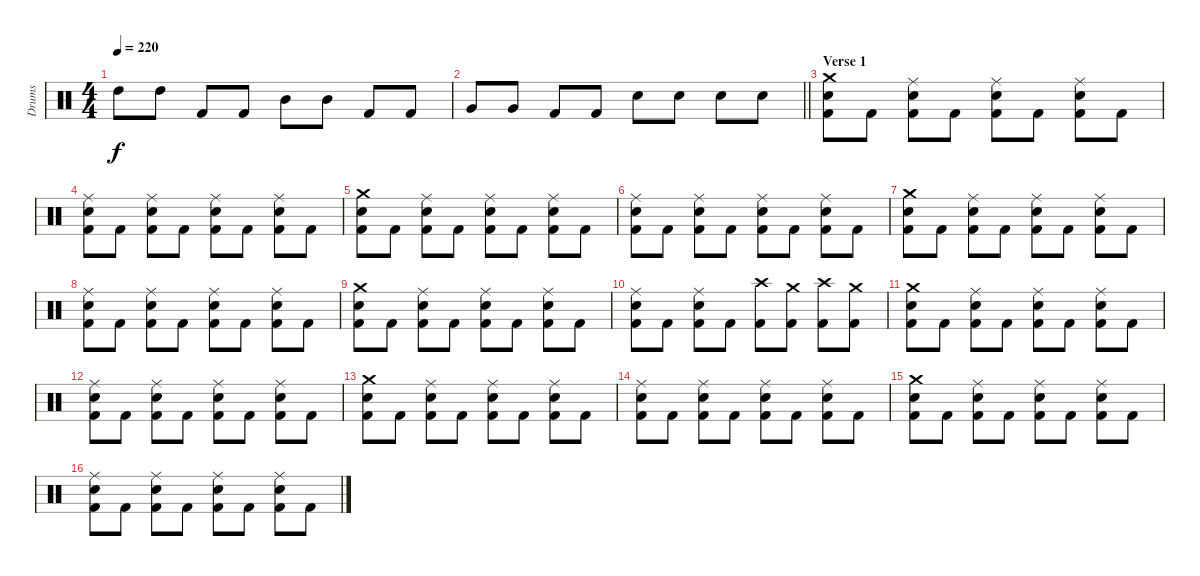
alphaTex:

\track ("Drums" "Drums") {instrument percussion}
\staff {score}
\articulation defaults
\ts (4 4)
\tempo 220
\clef neutral
\ks c "High Tom (hit)".8{dy f} "High Tom (hit)".8 "Kick (hit) 2".8 "Kick (hit) 2".8 "Mid Tom (hit)".8 "Mid Tom (hit)".8 "Kick (hit) 2".8 "Kick (hit) 2".8
|
\barLineRight lightlight "Very Low Tom (hit)".8 "Very Low Tom (hit)".8 "Kick (hit) 2".8 "Kick (hit) 2".8 "Snare (hit) 2".8 "Snare (hit) 2".8 "Snare (hit) 2".8 "Snare (hit) 2".8
|
\section ("" "Verse 1")
("Kick (hit) 2" "Snare (hit) 2" "Crash medium (hit)").8 "Kick (hit) 2".8 ("Kick (hit) 2" "Snare (hit) 2" "Ride (middle)").8 "Kick (hit) 2".8 ("Kick (hit) 2" "Snare (hit) 2" "Ride (middle)").8 "Kick (hit) 2".8 ("Kick (hit) 2" "Snare (hit) 2" "Ride (middle)").8 "Kick (hit) 2".8 |
("Kick (hit) 2" "Snare (hit) 2" "Ride (middle)").8 "Kick (hit) 2".8 ("Kick (hit) 2" "Snare (hit) 2" "Ride (middle)").8 "Kick (hit) 2".8 ("Kick (hit) 2" "Snare (hit) 2" "Ride (middle)").8 "Kick (hit) 2".8 ("Kick (hit) 2" "Snare (hit) 2" "Ride (middle)").8 "Kick (hit) 2".8 |
("Kick (hit) 2" "Snare (hit) 2" "Crash medium (hit)").8 "Kick (hit) 2".8 ("Kick (hit) 2" "Snare (hit) 2" "Ride (middle)").8 "Kick (hit) 2".8 ("Kick (hit) 2" "Snare (hit) 2" "Ride (middle)").8 "Kick (hit) 2".8 ("Kick (hit) 2" "Snare (hit) 2" "Ride (middle)").8 "Kick (hit) 2".8 |
("Kick (hit) 2" "Snare (hit) 2" "Ride (middle)").8 "Kick (hit) 2".8 ("Kick (hit) 2" "Snare (hit) 2" "Ride (middle)").8 "Kick (hit) 2".8 ("Kick (hit) 2" "Snare (hit) 2" "Ride (middle)").8 "Kick (hit) 2".8 ("Kick (hit) 2" "Snare (hit) 2" "Ride (middle)").8 "Kick (hit) 2".8 |
("Kick (hit) 2" "Snare (hit) 2" "Crash medium (hit)").8 "Kick (hit) 2".8 ("Kick (hit) 2" "Snare (hit) 2" "Ride (middle)").8 "Kick (hit) 2".8 ("Kick (hit) 2" "Snare (hit) 2" "Ride (middle)").8 "Kick (hit) 2".8 ("Kick (hit) 2" "Snare (hit) 2" "Ride (middle)").8 "Kick (hit) 2".8 |
("Kick (hit) 2" "Snare (hit) 2" "Ride (middle)").8 "Kick (hit) 2".8 ("Kick (hit) 2" "Snare (hit) 2" "Ride (middle)").8 "Kick (hit) 2".8 ("Kick (hit) 2" "Snare (hit) 2" "Ride (middle)").8 "Kick (hit) 2".8 ("Kick (hit) 2" "Snare (hit) 2" "Ride (middle)").8 "Kick (hit) 2".8 |
("Kick (hit) 2" "Snare (hit) 2" "Crash medium (hit)").8 "Kick (hit) 2".8 ("Kick (hit) 2" "Snare (hit) 2" "Ride (middle)").8 "Kick (hit) 2".8 ("Kick (hit) 2" "Snare (hit) 2" "Ride (middle)").8 "Kick (hit) 2".8 ("Kick (hit) 2" "Snare (hit) 2" "Ride (middle)").8 "Kick (hit) 2".8 |
("Kick (hit) 2" "Snare (hit) 2" "Ride (middle)").8 "Kick (hit) 2".8 ("Kick (hit) 2" "Snare (hit) 2" "Ride (middle)").8 "Kick (hit) 2".8 ("Kick (hit) 2" "Crash high (hit)").8 ("Kick (hit) 2" "Crash medium (hit)").8 ("Kick (hit) 2" "Crash high (hit)").8 ("Kick (hit) 2" "Crash medium (hit)").8 |
("Kick (hit) 2" "Snare (hit) 2" "Crash medium (hit)").8 "Kick (hit) 2".8 ("Kick (hit) 2" "Snare (hit) 2" "Ride (middle)").8 "Kick (hit) 2".8 ("Kick (hit) 2" "Snare (hit) 2" "Ride (middle)").8 "Kick (hit) 2".8 ("Kick (hit) 2" "Snare (hit) 2" "Ride (middle)").8 "Kick (hit) 2".8 |
("Kick (hit) 2" "Snare (hit) 2" "Ride (middle)").8 "Kick (hit) 2".8 ("Kick (hit) 2" "Snare (hit) 2" "Ride (middle)").8 "Kick (hit) 2".8 ("Kick (hit) 2" "Snare (hit) 2" "Ride (middle)").8 "Kick (hit) 2".8 ("Kick (hit) 2" "Snare (hit) 2" "Ride (middle)").8 "Kick (hit) 2".8 |
("Kick (hit) 2" "Snare (hit) 2" "Crash medium (hit)").8 "Kick (hit) 2".8 ("Kick (hit) 2" "Snare (hit) 2" "Ride (middle)").8 "Kick (hit) 2".8 ("Kick (hit) 2" "Snare (hit) 2" "Ride (middle)").8 "Kick (hit) 2".8 ("Kick (hit) 2" "Snare (hit) 2" "Ride (middle)").8 "Kick (hit) 2".8 |
("Kick (hit) 2" "Snare (hit) 2" "Ride (middle)").8 "Kick (hit) 2".8 ("Kick (hit) 2" "Snare (hit) 2" "Ride (middle)").8 "Kick (hit) 2".8 ("Kick (hit) 2" "Snare (hit) 2" "Ride (middle)").8 "Kick (hit) 2".8 ("Kick (hit) 2" "Snare (hit) 2" "Ride (middle)").8 "Kick (hit) 2".8 |
("Kick (hit) 2" "Snare (hit) 2" "Crash medium (hit)").8 "Kick (hit) 2".8 ("Kick (hit) 2" "Snare (hit) 2" "Ride (middle)").8 "Kick (hit) 2".8 ("Kick (hit) 2" "Snare (hit) 2" "Ride (middle)").8 "Kick (hit) 2".8 ("Kick (hit) 2" "Snare (hit) 2" "Ride (middle)").8 "Kick (hit) 2".8 |
("Kick (hit) 2" "Snare (hit) 2" "Ride (middle)").8 "Kick (hit) 2".8 ("Kick (hit) 2" "Snare (hit) 2" "Ride (middle)").8 "Kick (hit) 2".8 ("Kick (hit) 2" "Snare (hit) 2" "Ride (middle)").8 "Kick (hit) 2".8 ("Kick (hit) 2" "Snare (hit) 2" "Ride (middle)").8 "Kick (hit) 2".8
